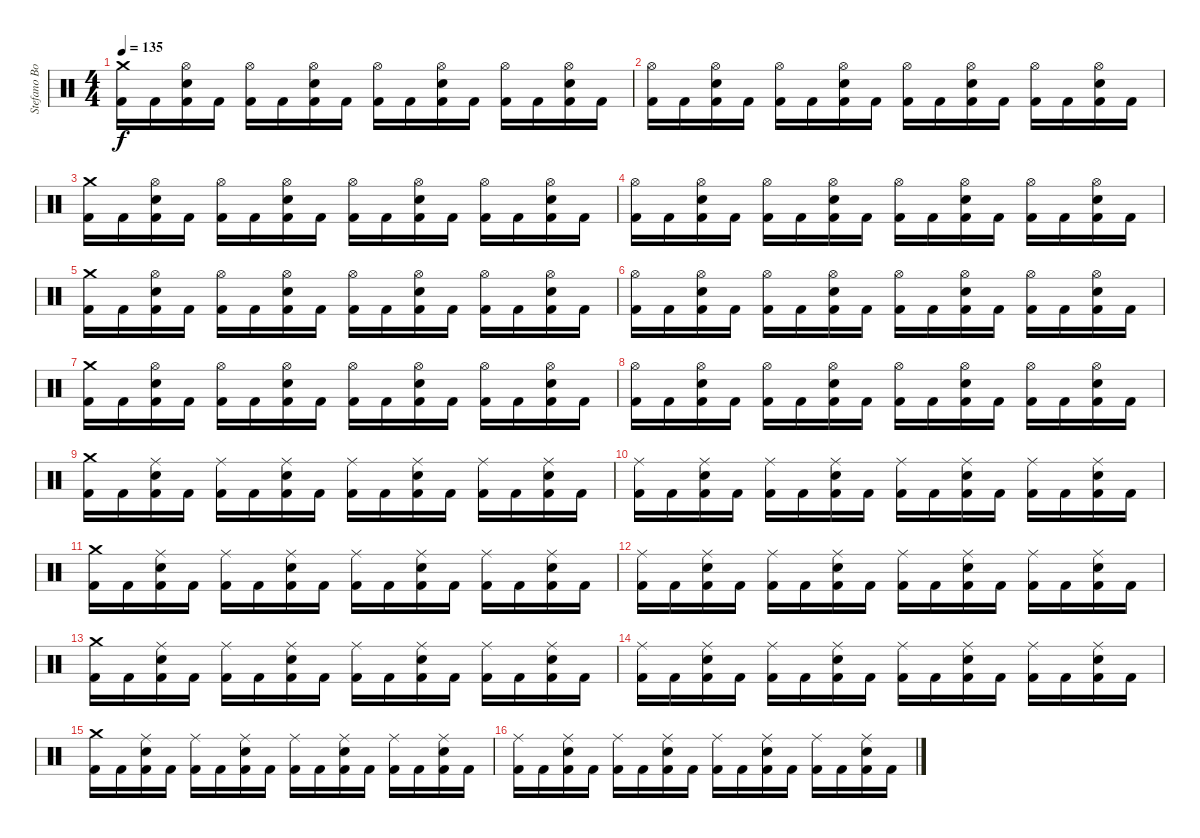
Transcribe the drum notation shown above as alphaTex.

\track ("Stefano Bonini" "Stefano Bo") {instrument percussion}
\staff {score}
\articulation defaults
\ts (4 4)
\tempo 135
\clef neutral
\ks c
("Crash medium (hit)" "Kick (hit) 2").16{dy f} "Kick (hit) 2".16 ("Hi-Hat (open)" "Electric Snare (hit)" "Kick (hit) 2").16 "Kick (hit) 2".16 ("Hi-Hat (open)" "Kick (hit) 2").16 "Kick (hit) 2".16 ("Hi-Hat (open)" "Electric Snare (hit)" "Kick (hit) 2").16 "Kick (hit) 2".16 ("Hi-Hat (open)" "Kick (hit) 2").16 "Kick (hit) 2".16 ("Hi-Hat (open)" "Electric Snare (hit)" "Kick (hit) 2").16 "Kick (hit) 2".16 ("Hi-Hat (open)" "Kick (hit) 2").16 "Kick (hit) 2".16 ("Hi-Hat (open)" "Electric Snare (hit)" "Kick (hit) 2").16 "Kick (hit) 2".16 |
("Hi-Hat (open)" "Kick (hit) 2").16 "Kick (hit) 2".16 ("Hi-Hat (open)" "Electric Snare (hit)" "Kick (hit) 2").16 "Kick (hit) 2".16 ("Hi-Hat (open)" "Kick (hit) 2").16 "Kick (hit) 2".16 ("Hi-Hat (open)" "Electric Snare (hit)" "Kick (hit) 2").16 "Kick (hit) 2".16 ("Hi-Hat (open)" "Kick (hit) 2").16 "Kick (hit) 2".16 ("Hi-Hat (open)" "Electric Snare (hit)" "Kick (hit) 2").16 "Kick (hit) 2".16 ("Hi-Hat (open)" "Kick (hit) 2").16 "Kick (hit) 2".16 ("Hi-Hat (open)" "Electric Snare (hit)" "Kick (hit) 2").16 "Kick (hit) 2".16 |
("Crash medium (hit)" "Kick (hit) 2").16 "Kick (hit) 2".16 ("Hi-Hat (open)" "Electric Snare (hit)" "Kick (hit) 2").16 "Kick (hit) 2".16 ("Hi-Hat (open)" "Kick (hit) 2").16 "Kick (hit) 2".16 ("Hi-Hat (open)" "Electric Snare (hit)" "Kick (hit) 2").16 "Kick (hit) 2".16 ("Hi-Hat (open)" "Kick (hit) 2").16 "Kick (hit) 2".16 ("Hi-Hat (open)" "Electric Snare (hit)" "Kick (hit) 2").16 "Kick (hit) 2".16 ("Hi-Hat (open)" "Kick (hit) 2").16 "Kick (hit) 2".16 ("Hi-Hat (open)" "Electric Snare (hit)" "Kick (hit) 2").16 "Kick (hit) 2".16 |
("Hi-Hat (open)" "Kick (hit) 2").16 "Kick (hit) 2".16 ("Hi-Hat (open)" "Electric Snare (hit)" "Kick (hit) 2").16 "Kick (hit) 2".16 ("Hi-Hat (open)" "Kick (hit) 2").16 "Kick (hit) 2".16 ("Hi-Hat (open)" "Electric Snare (hit)" "Kick (hit) 2").16 "Kick (hit) 2".16 ("Hi-Hat (open)" "Kick (hit) 2").16 "Kick (hit) 2".16 ("Hi-Hat (open)" "Electric Snare (hit)" "Kick (hit) 2").16 "Kick (hit) 2".16 ("Hi-Hat (open)" "Kick (hit) 2").16 "Kick (hit) 2".16 ("Hi-Hat (open)" "Electric Snare (hit)" "Kick (hit) 2").16 "Kick (hit) 2".16 |
("Crash medium (hit)" "Kick (hit) 2").16 "Kick (hit) 2".16 ("Hi-Hat (open)" "Electric Snare (hit)" "Kick (hit) 2").16 "Kick (hit) 2".16 ("Hi-Hat (open)" "Kick (hit) 2").16 "Kick (hit) 2".16 ("Hi-Hat (open)" "Electric Snare (hit)" "Kick (hit) 2").16 "Kick (hit) 2".16 ("Hi-Hat (open)" "Kick (hit) 2").16 "Kick (hit) 2".16 ("Hi-Hat (open)" "Electric Snare (hit)" "Kick (hit) 2").16 "Kick (hit) 2".16 ("Hi-Hat (open)" "Kick (hit) 2").16 "Kick (hit) 2".16 ("Hi-Hat (open)" "Electric Snare (hit)" "Kick (hit) 2").16 "Kick (hit) 2".16 |
("Hi-Hat (open)" "Kick (hit) 2").16 "Kick (hit) 2".16 ("Hi-Hat (open)" "Electric Snare (hit)" "Kick (hit) 2").16 "Kick (hit) 2".16 ("Hi-Hat (open)" "Kick (hit) 2").16 "Kick (hit) 2".16 ("Hi-Hat (open)" "Electric Snare (hit)" "Kick (hit) 2").16 "Kick (hit) 2".16 ("Hi-Hat (open)" "Kick (hit) 2").16 "Kick (hit) 2".16 ("Hi-Hat (open)" "Electric Snare (hit)" "Kick (hit) 2").16 "Kick (hit) 2".16 ("Hi-Hat (open)" "Kick (hit) 2").16 "Kick (hit) 2".16 ("Hi-Hat (open)" "Electric Snare (hit)" "Kick (hit) 2").16 "Kick (hit) 2".16 |
("Crash medium (hit)" "Kick (hit) 2").16 "Kick (hit) 2".16 ("Hi-Hat (open)" "Electric Snare (hit)" "Kick (hit) 2").16 "Kick (hit) 2".16 ("Hi-Hat (open)" "Kick (hit) 2").16 "Kick (hit) 2".16 ("Hi-Hat (open)" "Electric Snare (hit)" "Kick (hit) 2").16 "Kick (hit) 2".16 ("Hi-Hat (open)" "Kick (hit) 2").16 "Kick (hit) 2".16 ("Hi-Hat (open)" "Electric Snare (hit)" "Kick (hit) 2").16 "Kick (hit) 2".16 ("Hi-Hat (open)" "Kick (hit) 2").16 "Kick (hit) 2".16 ("Hi-Hat (open)" "Electric Snare (hit)" "Kick (hit) 2").16 "Kick (hit) 2".16 |
("Hi-Hat (open)" "Kick (hit) 2").16 "Kick (hit) 2".16 ("Hi-Hat (open)" "Electric Snare (hit)" "Kick (hit) 2").16 "Kick (hit) 2".16 ("Hi-Hat (open)" "Kick (hit) 2").16 "Kick (hit) 2".16 ("Hi-Hat (open)" "Electric Snare (hit)" "Kick (hit) 2").16 "Kick (hit) 2".16 ("Hi-Hat (open)" "Kick (hit) 2").16 "Kick (hit) 2".16 ("Hi-Hat (open)" "Electric Snare (hit)" "Kick (hit) 2").16 "Kick (hit) 2".16 ("Hi-Hat (open)" "Kick (hit) 2").16 "Kick (hit) 2".16 ("Hi-Hat (open)" "Electric Snare (hit)" "Kick (hit) 2").16 "Kick (hit) 2".16 |
("Crash medium (hit)" "Kick (hit) 2").16 "Kick (hit) 2".16 ("Ride (middle)" "Electric Snare (hit)" "Kick (hit) 2").16 "Kick (hit) 2".16 ("Ride (middle)" "Kick (hit) 2").16 "Kick (hit) 2".16 ("Ride (middle)" "Electric Snare (hit)" "Kick (hit) 2").16 "Kick (hit) 2".16 ("Ride (middle)" "Kick (hit) 2").16 "Kick (hit) 2".16 ("Ride (middle)" "Electric Snare (hit)" "Kick (hit) 2").16 "Kick (hit) 2".16 ("Ride (middle)" "Kick (hit) 2").16 "Kick (hit) 2".16 ("Ride (middle)" "Electric Snare (hit)" "Kick (hit) 2").16 "Kick (hit) 2".16 |
("Ride (middle)" "Kick (hit) 2").16 "Kick (hit) 2".16 ("Ride (middle)" "Electric Snare (hit)" "Kick (hit) 2").16 "Kick (hit) 2".16 ("Ride (middle)" "Kick (hit) 2").16 "Kick (hit) 2".16 ("Ride (middle)" "Electric Snare (hit)" "Kick (hit) 2").16 "Kick (hit) 2".16 ("Ride (middle)" "Kick (hit) 2").16 "Kick (hit) 2".16 ("Ride (middle)" "Electric Snare (hit)" "Kick (hit) 2").16 "Kick (hit) 2".16 ("Ride (middle)" "Kick (hit) 2").16 "Kick (hit) 2".16 ("Ride (middle)" "Electric Snare (hit)" "Kick (hit) 2").16 "Kick (hit) 2".16 |
("Crash medium (hit)" "Kick (hit) 2").16 "Kick (hit) 2".16 ("Ride (middle)" "Electric Snare (hit)" "Kick (hit) 2").16 "Kick (hit) 2".16 ("Ride (middle)" "Kick (hit) 2").16 "Kick (hit) 2".16 ("Ride (middle)" "Electric Snare (hit)" "Kick (hit) 2").16 "Kick (hit) 2".16 ("Ride (middle)" "Kick (hit) 2").16 "Kick (hit) 2".16 ("Ride (middle)" "Electric Snare (hit)" "Kick (hit) 2").16 "Kick (hit) 2".16 ("Ride (middle)" "Kick (hit) 2").16 "Kick (hit) 2".16 ("Ride (middle)" "Electric Snare (hit)" "Kick (hit) 2").16 "Kick (hit) 2".16 |
("Ride (middle)" "Kick (hit) 2").16 "Kick (hit) 2".16 ("Ride (middle)" "Electric Snare (hit)" "Kick (hit) 2").16 "Kick (hit) 2".16 ("Ride (middle)" "Kick (hit) 2").16 "Kick (hit) 2".16 ("Ride (middle)" "Electric Snare (hit)" "Kick (hit) 2").16 "Kick (hit) 2".16 ("Ride (middle)" "Kick (hit) 2").16 "Kick (hit) 2".16 ("Ride (middle)" "Electric Snare (hit)" "Kick (hit) 2").16 "Kick (hit) 2".16 ("Ride (middle)" "Kick (hit) 2").16 "Kick (hit) 2".16 ("Ride (middle)" "Electric Snare (hit)" "Kick (hit) 2").16 "Kick (hit) 2".16 |
("Crash medium (hit)" "Kick (hit) 2").16 "Kick (hit) 2".16 ("Ride (middle)" "Electric Snare (hit)" "Kick (hit) 2").16 "Kick (hit) 2".16 ("Ride (middle)" "Kick (hit) 2").16 "Kick (hit) 2".16 ("Ride (middle)" "Electric Snare (hit)" "Kick (hit) 2").16 "Kick (hit) 2".16 ("Ride (middle)" "Kick (hit) 2").16 "Kick (hit) 2".16 ("Ride (middle)" "Electric Snare (hit)" "Kick (hit) 2").16 "Kick (hit) 2".16 ("Ride (middle)" "Kick (hit) 2").16 "Kick (hit) 2".16 ("Ride (middle)" "Electric Snare (hit)" "Kick (hit) 2").16 "Kick (hit) 2".16 |
("Ride (middle)" "Kick (hit) 2").16 "Kick (hit) 2".16 ("Ride (middle)" "Electric Snare (hit)" "Kick (hit) 2").16 "Kick (hit) 2".16 ("Ride (middle)" "Kick (hit) 2").16 "Kick (hit) 2".16 ("Ride (middle)" "Electric Snare (hit)" "Kick (hit) 2").16 "Kick (hit) 2".16 ("Ride (middle)" "Kick (hit) 2").16 "Kick (hit) 2".16 ("Ride (middle)" "Electric Snare (hit)" "Kick (hit) 2").16 "Kick (hit) 2".16 ("Ride (middle)" "Kick (hit) 2").16 "Kick (hit) 2".16 ("Ride (middle)" "Electric Snare (hit)" "Kick (hit) 2").16 "Kick (hit) 2".16 |
("Crash medium (hit)" "Kick (hit) 2").16 "Kick (hit) 2".16 ("Ride (middle)" "Electric Snare (hit)" "Kick (hit) 2").16 "Kick (hit) 2".16 ("Ride (middle)" "Kick (hit) 2").16 "Kick (hit) 2".16 ("Ride (middle)" "Electric Snare (hit)" "Kick (hit) 2").16 "Kick (hit) 2".16 ("Ride (middle)" "Kick (hit) 2").16 "Kick (hit) 2".16 ("Ride (middle)" "Electric Snare (hit)" "Kick (hit) 2").16 "Kick (hit) 2".16 ("Ride (middle)" "Kick (hit) 2").16 "Kick (hit) 2".16 ("Ride (middle)" "Electric Snare (hit)" "Kick (hit) 2").16 "Kick (hit) 2".16 |
("Ride (middle)" "Kick (hit) 2").16 "Kick (hit) 2".16 ("Ride (middle)" "Electric Snare (hit)" "Kick (hit) 2").16 "Kick (hit) 2".16 ("Ride (middle)" "Kick (hit) 2").16 "Kick (hit) 2".16 ("Ride (middle)" "Electric Snare (hit)" "Kick (hit) 2").16 "Kick (hit) 2".16 ("Ride (middle)" "Kick (hit) 2").16 "Kick (hit) 2".16 ("Ride (middle)" "Electric Snare (hit)" "Kick (hit) 2").16 "Kick (hit) 2".16 ("Ride (middle)" "Kick (hit) 2").16 "Kick (hit) 2".16 ("Ride (middle)" "Electric Snare (hit)" "Kick (hit) 2").16 "Kick (hit) 2".16
